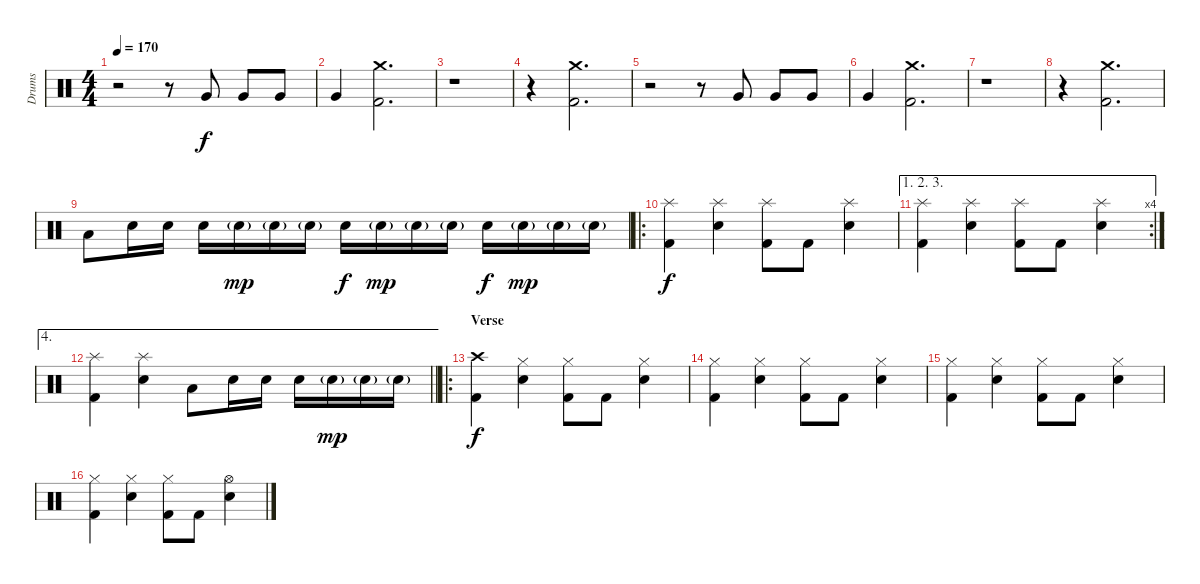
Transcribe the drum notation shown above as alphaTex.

\track ("Drums" "Drums") {instrument percussion}
\staff {score}
\articulation defaults
\ts (4 4)
\tempo 170
\clef neutral
\ks aminor
r.2{dy f} r.8 "Very Low Tom (hit)".8 "Very Low Tom (hit)".8 "Very Low Tom (hit)".8 |
"Very Low Tom (hit)".4 ("Crash medium (hit)" "Kick (hit) 2").2{d} |
r.1 |
r.4 ("Crash medium (hit)" "Kick (hit) 2").2{d} |
r.2 r.8 "Very Low Tom (hit)".8 "Very Low Tom (hit)".8 "Very Low Tom (hit)".8 |
"Very Low Tom (hit)".4 ("Crash medium (hit)" "Kick (hit) 2").2{d} |
r.1 |
r.4 ("Crash medium (hit)" "Kick (hit) 2").2{d} |
"Low Tom (hit)".8 "Electric Snare (hit)".16 "Electric Snare (hit)".16 "Electric Snare (hit)".16 "Electric Snare (hit)"{g}.16{dy mp} "Electric Snare (hit)"{g}.16 "Electric Snare (hit)"{g}.16 "Electric Snare (hit)".16{dy f} "Electric Snare (hit)"{g}.16{dy mp} "Electric Snare (hit)"{g}.16 "Electric Snare (hit)"{g}.16 "Electric Snare (hit)".16{dy f} "Electric Snare (hit)"{g}.16{dy mp} "Electric Snare (hit)"{g}.16 "Electric Snare (hit)"{g}.16 |
\ro
("Splash (hit)" "Kick (hit) 2").4{dy f} ("Splash (hit)" "Snare (hit) 2").4 ("Splash (hit)" "Kick (hit) 2").8 "Kick (hit) 2".8 ("Splash (hit)" "Snare (hit) 2").4 |
\ae (1 2 3)
\rc 4
("Splash (hit)" "Kick (hit) 2").4 ("Splash (hit)" "Snare (hit) 2").4 ("Splash (hit)" "Kick (hit) 2").8 "Kick (hit) 2".8 ("Splash (hit)" "Snare (hit) 2").4 |
\ae 4
\barLineRight lightlight
("Splash (hit)" "Kick (hit) 2").4 ("Splash (hit)" "Snare (hit) 2").4 "Low Tom (hit)".8 "Electric Snare (hit)".16 "Electric Snare (hit)".16 "Electric Snare (hit)".16 "Electric Snare (hit)"{g}.16{dy mp} "Electric Snare (hit)"{g}.16 "Electric Snare (hit)"{g}.16 |
\ro
\section ("" "Verse")
("Crash high (hit)" "Kick (hit) 2").4{dy f} ("Hi-Hat (closed)" "Snare (hit) 2").4 ("Hi-Hat (closed)" "Kick (hit) 2").8 "Kick (hit) 2".8 ("Hi-Hat (closed)" "Snare (hit) 2").4 |
("Hi-Hat (closed)" "Kick (hit) 2").4 ("Hi-Hat (closed)" "Snare (hit) 2").4 ("Hi-Hat (closed)" "Kick (hit) 2").8 "Kick (hit) 2".8 ("Hi-Hat (closed)" "Snare (hit) 2").4 |
("Hi-Hat (closed)" "Kick (hit) 2").4 ("Hi-Hat (closed)" "Snare (hit) 2").4 ("Hi-Hat (closed)" "Kick (hit) 2").8 "Kick (hit) 2".8 ("Hi-Hat (closed)" "Snare (hit) 2").4 |
("Hi-Hat (closed)" "Kick (hit) 2").4 ("Hi-Hat (closed)" "Snare (hit) 2").4 ("Hi-Hat (closed)" "Kick (hit) 2").8 "Kick (hit) 2".8 ("Hi-Hat (open)" "Snare (hit) 2").4
